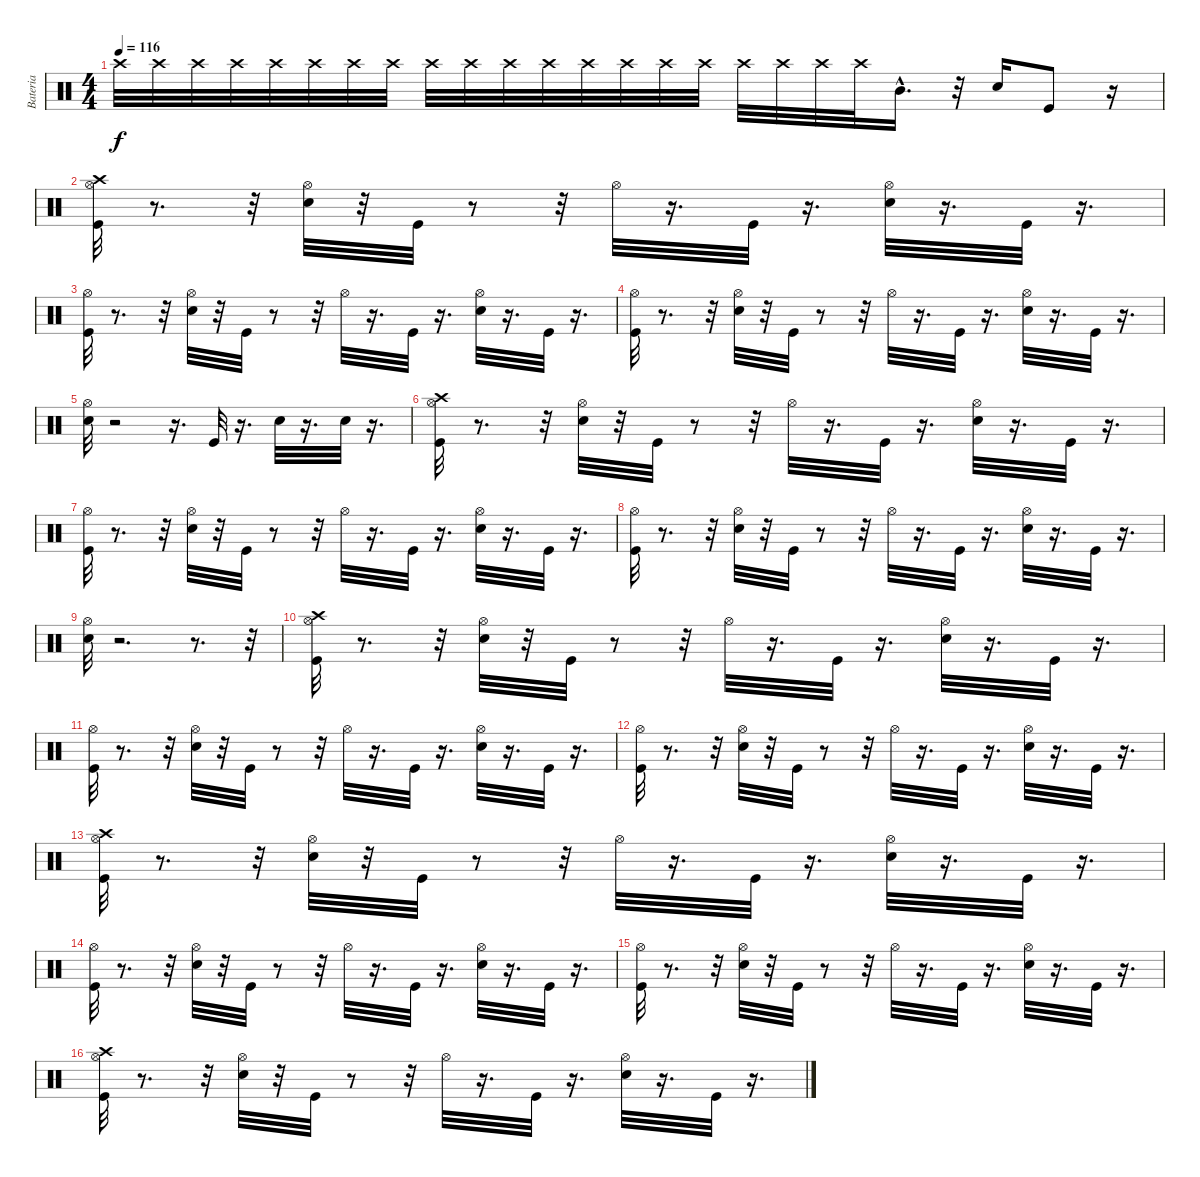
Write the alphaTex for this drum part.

\track ("Bateria" "Bateria") {instrument percussion}
\staff {score}
\articulation defaults
\ts (4 4)
\tempo 116
\clef neutral
\ks c "Crash high (hit)".32{dy f} "Crash high (hit)".32{volume 3} "Crash high (hit)".32{volume 4} "Crash high (hit)".32{volume 4} "Crash high (hit)".32{volume 5} "Crash high (hit)".32{volume 6} "Crash high (hit)".32{volume 6} "Crash high (hit)".32{volume 7} "Crash high (hit)".32{volume 8} "Crash high (hit)".32{volume 8} "Crash high (hit)".32{volume 9} "Crash high (hit)".32{volume 10} "Crash high (hit)".32{volume 10} "Crash high (hit)".32{volume 11} "Crash high (hit)".32{volume 12} "Crash high (hit)".32{volume 12} "Crash high (hit)".32{volume 13} "Crash high (hit)".32{volume 14} "Crash high (hit)".32{volume 14} "Crash high (hit)".32{volume 15} "Mid Tom (hit)"{hac}.16{d volume 16}
r.32 "Electric Snare (hit)".16{volume 16} "Kick (hit)".8 r.16 |
("Hi-Hat (open)" "Kick (hit)" "Crash high (hit)").32 r.8{d} r.32 ("Hi-Hat (open)" "Electric Snare (hit)").32 r.32 "Kick (hit)".32 r.8 r.32 "Hi-Hat (open)".32 r.16{d} "Kick (hit)".32 r.16{d} ("Hi-Hat (open)" "Electric Snare (hit)").32 r.16{d} "Kick (hit)".32 r.16{d} |
("Hi-Hat (open)" "Kick (hit)").32 r.8{d} r.32 ("Hi-Hat (open)" "Electric Snare (hit)").32 r.32 "Kick (hit)".32 r.8 r.32 "Hi-Hat (open)".32 r.16{d} "Kick (hit)".32 r.16{d} ("Hi-Hat (open)" "Electric Snare (hit)").32 r.16{d} "Kick (hit)".32 r.16{d} |
("Hi-Hat (open)" "Kick (hit)").32 r.8{d} r.32 ("Hi-Hat (open)" "Electric Snare (hit)").32 r.32 "Kick (hit)".32 r.8 r.32 "Hi-Hat (open)".32 r.16{d} "Kick (hit)".32 r.16{d} ("Hi-Hat (open)" "Electric Snare (hit)").32 r.16{d} "Kick (hit)".32 r.16{d} |
("Hi-Hat (open)" "Electric Snare (hit)").32 r.2 r.16{d} "Kick (hit)".32 r.16{d} "Electric Snare (hit)".32 r.16{d} "Electric Snare (hit)".32 r.16{d} |
("Hi-Hat (open)" "Kick (hit)" "Crash high (hit)").32{volume 16} r.8{d} r.32 ("Hi-Hat (open)" "Electric Snare (hit)").32 r.32 "Kick (hit)".32 r.8 r.32 "Hi-Hat (open)".32 r.16{d} "Kick (hit)".32 r.16{d} ("Hi-Hat (open)" "Electric Snare (hit)").32 r.16{d} "Kick (hit)".32 r.16{d} |
("Hi-Hat (open)" "Kick (hit)").32 r.8{d} r.32 ("Hi-Hat (open)" "Electric Snare (hit)").32 r.32 "Kick (hit)".32 r.8 r.32 "Hi-Hat (open)".32 r.16{d} "Kick (hit)".32 r.16{d} ("Hi-Hat (open)" "Electric Snare (hit)").32 r.16{d} "Kick (hit)".32 r.16{d} |
("Hi-Hat (open)" "Kick (hit)").32 r.8{d} r.32 ("Hi-Hat (open)" "Electric Snare (hit)").32 r.32 "Kick (hit)".32 r.8 r.32 "Hi-Hat (open)".32 r.16{d} "Kick (hit)".32 r.16{d} ("Hi-Hat (open)" "Electric Snare (hit)").32 r.16{d} "Kick (hit)".32 r.16{d} |
("Hi-Hat (open)" "Electric Snare (hit)").32 r.2{d} r.8{d} r.32 |
("Hi-Hat (open)" "Kick (hit)" "Crash high (hit)").32 r.8{d} r.32 ("Hi-Hat (open)" "Electric Snare (hit)").32 r.32 "Kick (hit)".32 r.8 r.32 "Hi-Hat (open)".32 r.16{d} "Kick (hit)".32 r.16{d} ("Hi-Hat (open)" "Electric Snare (hit)").32 r.16{d} "Kick (hit)".32 r.16{d} |
("Hi-Hat (open)" "Kick (hit)").32 r.8{d} r.32 ("Hi-Hat (open)" "Electric Snare (hit)").32 r.32 "Kick (hit)".32 r.8 r.32 "Hi-Hat (open)".32 r.16{d} "Kick (hit)".32 r.16{d} ("Hi-Hat (open)" "Electric Snare (hit)").32 r.16{d} "Kick (hit)".32 r.16{d} |
("Hi-Hat (open)" "Kick (hit)").32 r.8{d} r.32 ("Hi-Hat (open)" "Electric Snare (hit)").32 r.32 "Kick (hit)".32 r.8 r.32 "Hi-Hat (open)".32 r.16{d} "Kick (hit)".32 r.16{d} ("Hi-Hat (open)" "Electric Snare (hit)").32 r.16{d} "Kick (hit)".32 r.16{d} |
("Crash high (hit)" "Hi-Hat (open)" "Kick (hit)").32 r.8{d} r.32 ("Hi-Hat (open)" "Electric Snare (hit)").32 r.32 "Kick (hit)".32 r.8 r.32 "Hi-Hat (open)".32 r.16{d} "Kick (hit)".32 r.16{d} ("Hi-Hat (open)" "Electric Snare (hit)").32 r.16{d} "Kick (hit)".32 r.16{d} |
("Hi-Hat (open)" "Kick (hit)").32 r.8{d} r.32 ("Hi-Hat (open)" "Electric Snare (hit)").32 r.32 "Kick (hit)".32 r.8 r.32 "Hi-Hat (open)".32 r.16{d} "Kick (hit)".32 r.16{d} ("Hi-Hat (open)" "Electric Snare (hit)").32 r.16{d} "Kick (hit)".32 r.16{d} |
("Hi-Hat (open)" "Kick (hit)").32 r.8{d} r.32 ("Hi-Hat (open)" "Electric Snare (hit)").32 r.32 "Kick (hit)".32 r.8 r.32 "Hi-Hat (open)".32 r.16{d} "Kick (hit)".32 r.16{d} ("Hi-Hat (open)" "Electric Snare (hit)").32 r.16{d} "Kick (hit)".32 r.16{d} |
("Hi-Hat (open)" "Kick (hit)" "Crash high (hit)").32 r.8{d} r.32 ("Hi-Hat (open)" "Electric Snare (hit)").32 r.32 "Kick (hit)".32 r.8 r.32 "Hi-Hat (open)".32 r.16{d} "Kick (hit)".32 r.16{d} ("Hi-Hat (open)" "Electric Snare (hit)").32 r.16{d} "Kick (hit)".32 r.16{d}
